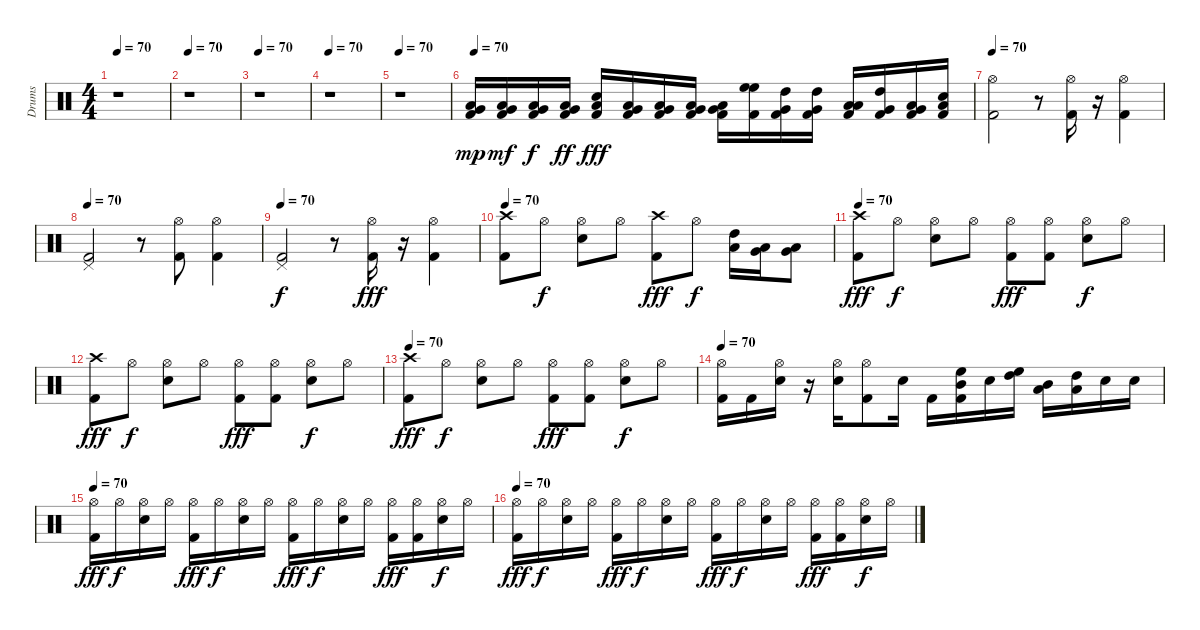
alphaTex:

\track ("Drums" "Drums") {instrument percussion}
\staff {score}
\articulation defaults
\ts (4 4)
\tempo 70
\clef neutral
\ks c
r.1{dy f} |
\tempo 70
r.1 |
\tempo 70
r.1 |
\tempo 70
r.1 |
\tempo 70
r.1 |
\tempo 70
("Kick (hit) 2" "Low Tom (hit)" "Very Low Tom (hit)").16{dy mp} ("Kick (hit) 2" "Low Tom (hit)" "Very Low Tom (hit)").16{dy mf} ("Kick (hit) 2" "Low Tom (hit)" "Very Low Tom (hit)").16{dy f} ("Kick (hit) 2" "Low Tom (hit)" "Very Low Tom (hit)").16{dy ff} ("Kick (hit) 2" "Low Tom (hit)" "Metronome (bell)").16{dy fff} ("Kick (hit) 2" "Low Tom (hit)" "Very Low Tom (hit)").16 ("Kick (hit) 2" "Low Tom (hit)" "Very Low Tom (hit)").16 ("Kick (hit) 2" "Low Tom (hit)" "Very Low Tom (hit)").16 ("Kick (hit) 2" "Low Tom (hit)" "Very Low Tom (hit)").16 ("Kick (hit) 2" "High Floor Tom (hit)" "High Floor Tom (hit)").16{balance 16} ("Kick (hit) 2" "High Tom (hit)" "Very Low Tom (hit)").16{balance 11} ("Kick (hit) 2" "High Tom (hit)" "Very Low Tom (hit)").16 ("Kick (hit) 2" "Low Floor Tom (hit)" "Low Floor Tom (hit)").16{balance 0} ("Kick (hit) 2" "High Tom (hit)" "Very Low Tom (hit)").16{balance 11} ("Kick (hit) 2" "Low Tom (hit)" "Very Low Tom (hit)").16 ("Kick (hit) 2" "Low Tom (hit)" "Metronome (bell)").16 |
\tempo 70
("Kick (hit) 2" "Hi-Hat (open)").2 r.8 ("Kick (hit) 2" "Hi-Hat (open)").16 r.16 ("Kick (hit) 2" "Hi-Hat (open)").4 |
\tempo 70
("Kick (hit) 2" "Pedal Hi-Hat (hit)").2 r.8 ("Kick (hit) 2" "Hi-Hat (open)").8 ("Kick (hit) 2" "Hi-Hat (open)").4 |
\tempo 70
("Kick (hit) 2" "Pedal Hi-Hat (hit)").2{dy f} r.8 ("Kick (hit) 2" "Hi-Hat (open)").16{dy fff} r.16 ("Kick (hit) 2" "Hi-Hat (open)").4 |
\tempo 70
("Kick (hit) 2" "Crash high (hit)").8 "Hi-Hat (open)".8{dy f} ("Electric Snare (hit)" "Hi-Hat (open)").8 "Hi-Hat (open)".8 ("Kick (hit) 2" "Crash high (hit)").8{dy fff} "Hi-Hat (open)".8{dy f} ("High Tom (hit)" "Low Tom (hit)").16 ("Low Tom (hit)" "Very Low Tom (hit)").16 ("Very Low Tom (hit)" "Low Floor Tom (hit)").8 |
\tempo 70
("Kick (hit) 2" "Crash high (hit)").8{dy fff} "Hi-Hat (open)".8{dy f} ("Electric Snare (hit)" "Hi-Hat (open)").8 "Hi-Hat (open)".8 ("Kick (hit) 2" "Hi-Hat (open)").8{dy fff} ("Kick (hit) 2" "Hi-Hat (open)").8 ("Electric Snare (hit)" "Hi-Hat (open)").8{dy f} "Hi-Hat (open)".8 |
("Kick (hit) 2" "Crash high (hit)").8{dy fff} "Hi-Hat (open)".8{dy f} ("Electric Snare (hit)" "Hi-Hat (open)").8 "Hi-Hat (open)".8 ("Kick (hit) 2" "Hi-Hat (open)").8{dy fff} ("Kick (hit) 2" "Hi-Hat (open)").8 ("Electric Snare (hit)" "Hi-Hat (open)").8{dy f} "Hi-Hat (open)".8 |
\tempo 70
("Kick (hit) 2" "Crash high (hit)").8{dy fff} "Hi-Hat (open)".8{dy f} ("Electric Snare (hit)" "Hi-Hat (open)").8 "Hi-Hat (open)".8 ("Kick (hit) 2" "Hi-Hat (open)").8{dy fff} ("Kick (hit) 2" "Hi-Hat (open)").8 ("Electric Snare (hit)" "Hi-Hat (open)").8{dy f} "Hi-Hat (open)".8 |
\tempo 70
("Kick (hit) 2" "Hi-Hat (open)").16 "Kick (hit) 2".16 ("Electric Snare (hit)" "Hi-Hat (open)").16 r.16 ("Electric Snare (hit)" "Hi-Hat (open)").16 ("Kick (hit) 2" "Hi-Hat (open)").8 "Electric Snare (hit)".16 "Kick (hit) 2".16 ("Kick (hit) 2" "Mid Tom (hit)" "High Floor Tom (hit)").16 "Electric Snare (hit)".16 ("High Floor Tom (hit)" "High Tom (hit)").16 ("Low Tom (hit)" "Mid Tom (hit)").16 ("High Tom (hit)" "Low Tom (hit)").16 "Electric Snare (hit)".16 "Electric Snare (hit)".16 |
\tempo 70
("Kick (hit) 2" "Hi-Hat (open)").16{dy fff} "Hi-Hat (open)".16{dy f} ("Electric Snare (hit)" "Hi-Hat (open)").16 "Hi-Hat (open)".16 ("Kick (hit) 2" "Hi-Hat (open)").16{dy fff} "Hi-Hat (open)".16{dy f} ("Electric Snare (hit)" "Hi-Hat (open)").16 "Hi-Hat (open)".16 ("Kick (hit) 2" "Hi-Hat (open)").16{dy fff} "Hi-Hat (open)".16{dy f} ("Electric Snare (hit)" "Hi-Hat (open)").16 "Hi-Hat (open)".16 ("Kick (hit) 2" "Hi-Hat (open)").16{dy fff} ("Kick (hit) 2" "Hi-Hat (open)").16 ("Electric Snare (hit)" "Hi-Hat (open)").16{dy f} "Hi-Hat (open)".16 |
\tempo 70
("Kick (hit) 2" "Hi-Hat (open)").16{dy fff} "Hi-Hat (open)".16{dy f} ("Electric Snare (hit)" "Hi-Hat (open)").16 "Hi-Hat (open)".16 ("Kick (hit) 2" "Hi-Hat (open)").16{dy fff} "Hi-Hat (open)".16{dy f} ("Electric Snare (hit)" "Hi-Hat (open)").16 "Hi-Hat (open)".16 ("Kick (hit) 2" "Hi-Hat (open)").16{dy fff} "Hi-Hat (open)".16{dy f} ("Electric Snare (hit)" "Hi-Hat (open)").16 "Hi-Hat (open)".16 ("Kick (hit) 2" "Hi-Hat (open)").16{dy fff} ("Kick (hit) 2" "Hi-Hat (open)").16 ("Electric Snare (hit)" "Hi-Hat (open)").16{dy f} "Hi-Hat (open)".16
